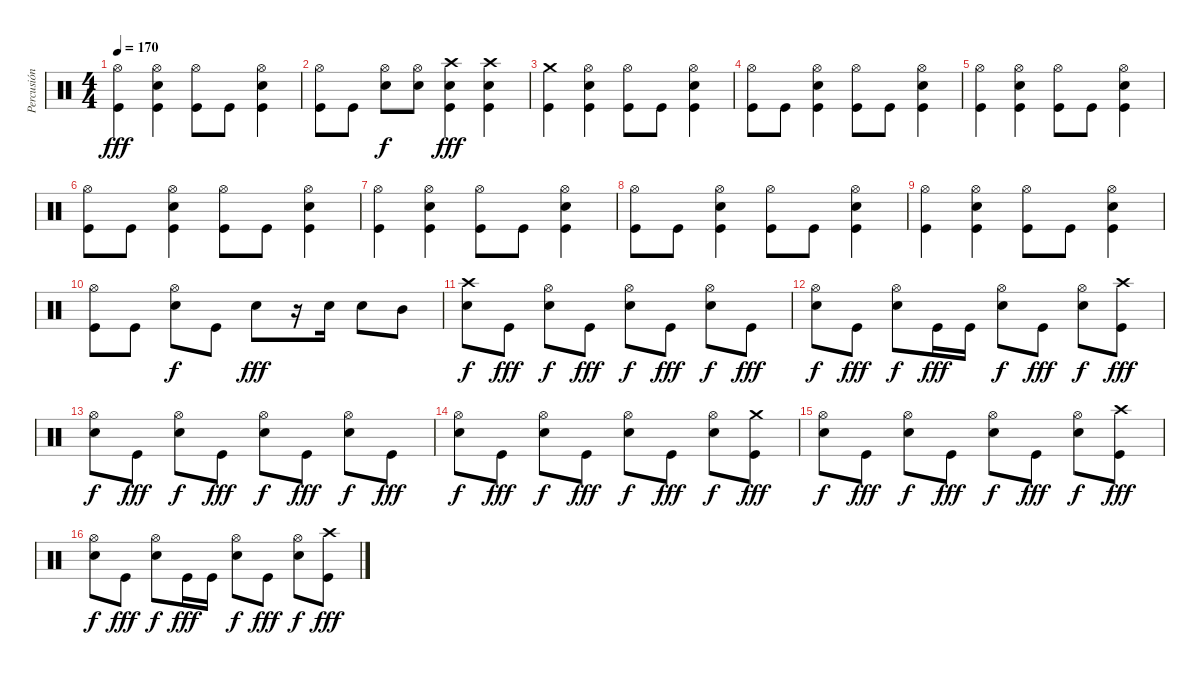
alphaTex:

\track ("Percusión" "Percusión") {instrument percussion}
\staff {score}
\articulation defaults
\ts (4 4)
\tempo 170
\clef neutral
\ks c
("Hi-Hat (open)" "Kick (hit)").4{dy fff} ("Hi-Hat (open)" "Electric Snare (hit)" "Kick (hit)").4 ("Hi-Hat (open)" "Kick (hit)").8 "Kick (hit)".8 ("Hi-Hat (open)" "Electric Snare (hit)" "Kick (hit)").4 |
("Hi-Hat (open)" "Kick (hit)").8 "Kick (hit)".8 ("Hi-Hat (open)" "Electric Snare (hit)").8{dy f} ("Hi-Hat (open)" "Electric Snare (hit)").8 ("Crash high (hit)" "Electric Snare (hit)" "Kick (hit)").4{dy fff} ("Crash high (hit)" "Electric Snare (hit)" "Kick (hit)").4 |
("Crash medium (hit)" "Kick (hit)").4 ("Hi-Hat (open)" "Electric Snare (hit)" "Kick (hit)").4 ("Hi-Hat (open)" "Kick (hit)").8 "Kick (hit)".8 ("Hi-Hat (open)" "Electric Snare (hit)" "Kick (hit)").4 |
("Hi-Hat (open)" "Kick (hit)").8 "Kick (hit)".8 ("Hi-Hat (open)" "Electric Snare (hit)" "Kick (hit)").4 ("Hi-Hat (open)" "Kick (hit)").8 "Kick (hit)".8 ("Hi-Hat (open)" "Electric Snare (hit)" "Kick (hit)").4 |
("Hi-Hat (open)" "Kick (hit)").4 ("Hi-Hat (open)" "Electric Snare (hit)" "Kick (hit)").4 ("Hi-Hat (open)" "Kick (hit)").8 "Kick (hit)".8 ("Hi-Hat (open)" "Electric Snare (hit)" "Kick (hit)").4 |
("Hi-Hat (open)" "Kick (hit)").8 "Kick (hit)".8 ("Hi-Hat (open)" "Electric Snare (hit)" "Kick (hit)").4 ("Hi-Hat (open)" "Kick (hit)").8 "Kick (hit)".8 ("Hi-Hat (open)" "Electric Snare (hit)" "Kick (hit)").4 |
("Hi-Hat (open)" "Kick (hit)").4 ("Hi-Hat (open)" "Electric Snare (hit)" "Kick (hit)").4 ("Hi-Hat (open)" "Kick (hit)").8 "Kick (hit)".8 ("Hi-Hat (open)" "Electric Snare (hit)" "Kick (hit)").4 |
("Hi-Hat (open)" "Kick (hit)").8 "Kick (hit)".8 ("Hi-Hat (open)" "Electric Snare (hit)" "Kick (hit)").4 ("Hi-Hat (open)" "Kick (hit)").8 "Kick (hit)".8 ("Hi-Hat (open)" "Electric Snare (hit)" "Kick (hit)").4 |
("Hi-Hat (open)" "Kick (hit)").4 ("Hi-Hat (open)" "Electric Snare (hit)" "Kick (hit)").4 ("Hi-Hat (open)" "Kick (hit)").8 "Kick (hit)".8 ("Hi-Hat (open)" "Electric Snare (hit)" "Kick (hit)").4 |
("Hi-Hat (open)" "Kick (hit)").8 "Kick (hit)".8 ("Hi-Hat (open)" "Electric Snare (hit)").8{dy f} "Kick (hit)".8 "Electric Snare (hit)".8{dy fff} r.16 "Electric Snare (hit)".16 "Electric Snare (hit)".8 "Mid Tom (hit)".8 |
("Crash high (hit)" "Electric Snare (hit)").8{dy f} "Kick (hit)".8{dy fff} ("Hi-Hat (open)" "Electric Snare (hit)").8{dy f} "Kick (hit)".8{dy fff} ("Hi-Hat (open)" "Electric Snare (hit)").8{dy f} "Kick (hit)".8{dy fff} ("Hi-Hat (open)" "Electric Snare (hit)").8{dy f} "Kick (hit)".8{dy fff} |
("Hi-Hat (open)" "Electric Snare (hit)").8{dy f} "Kick (hit)".8{dy fff} ("Hi-Hat (open)" "Electric Snare (hit)").8{dy f} "Kick (hit)".16{dy fff} "Kick (hit)".16 ("Hi-Hat (open)" "Electric Snare (hit)").8{dy f} "Kick (hit)".8{dy fff} ("Hi-Hat (open)" "Electric Snare (hit)").8{dy f} ("Crash high (hit)" "Kick (hit)").8{dy fff} |
("Hi-Hat (open)" "Electric Snare (hit)").8{dy f} "Kick (hit)".8{dy fff} ("Hi-Hat (open)" "Electric Snare (hit)").8{dy f} "Kick (hit)".8{dy fff} ("Hi-Hat (open)" "Electric Snare (hit)").8{dy f} "Kick (hit)".8{dy fff} ("Hi-Hat (open)" "Electric Snare (hit)").8{dy f} "Kick (hit)".8{dy fff} |
("Hi-Hat (open)" "Electric Snare (hit)").8{dy f} "Kick (hit)".8{dy fff} ("Hi-Hat (open)" "Electric Snare (hit)").8{dy f} "Kick (hit)".8{dy fff} ("Hi-Hat (open)" "Electric Snare (hit)").8{dy f} "Kick (hit)".8{dy fff} ("Hi-Hat (open)" "Electric Snare (hit)").8{dy f} ("Crash medium (hit)" "Kick (hit)").8{dy fff} |
("Hi-Hat (open)" "Electric Snare (hit)").8{dy f} "Kick (hit)".8{dy fff} ("Hi-Hat (open)" "Electric Snare (hit)").8{dy f} "Kick (hit)".8{dy fff} ("Hi-Hat (open)" "Electric Snare (hit)").8{dy f} "Kick (hit)".8{dy fff} ("Hi-Hat (open)" "Electric Snare (hit)").8{dy f} ("Crash high (hit)" "Kick (hit)").8{dy fff} |
("Hi-Hat (open)" "Electric Snare (hit)").8{dy f} "Kick (hit)".8{dy fff} ("Hi-Hat (open)" "Electric Snare (hit)").8{dy f} "Kick (hit)".16{dy fff} "Kick (hit)".16 ("Hi-Hat (open)" "Electric Snare (hit)").8{dy f} "Kick (hit)".8{dy fff} ("Hi-Hat (open)" "Electric Snare (hit)").8{dy f} ("Crash high (hit)" "Kick (hit)").8{dy fff}
